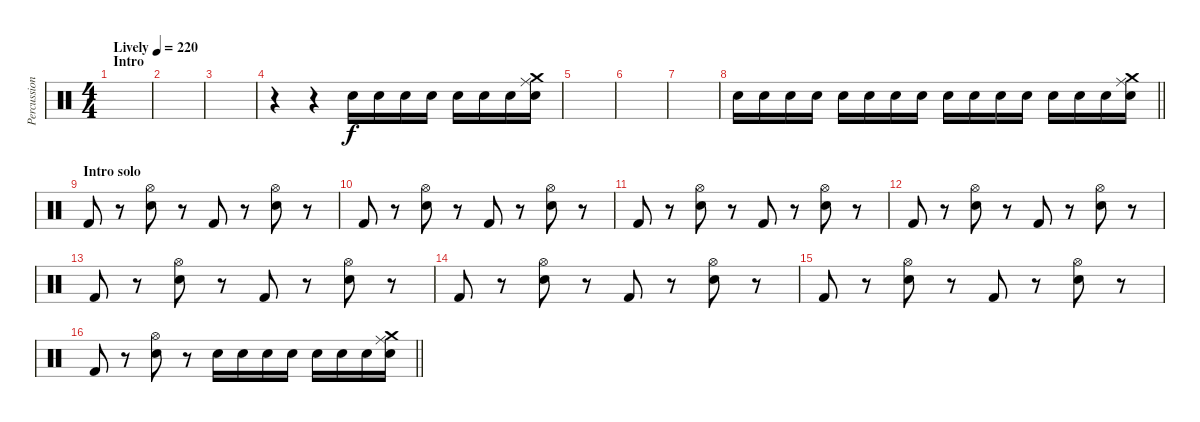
\track ("Percussion" "Percussion") {instrument percussion}
\staff {score}
\articulation defaults
\ts (4 4)
\section ("" "Intro")
\tempo (220 "Lively")
\clef neutral
\ks c
|
|
|
r.4 r.4 "Snare (hit) 2".16 "Snare (hit) 2".16 "Snare (hit) 2".16 "Snare (hit) 2".16 "Snare (hit) 2".16 "Snare (hit) 2".16 "Snare (hit) 2".16 ("Crash medium (hit)" "Ride (middle)" "Snare (hit) 2").16 |
|
|
|
\barLineRight lightlight "Snare (hit) 2".16 "Snare (hit) 2".16 "Snare (hit) 2".16 "Snare (hit) 2".16 "Snare (hit) 2".16 "Snare (hit) 2".16 "Snare (hit) 2".16 "Snare (hit) 2".16 "Snare (hit) 2".16 "Snare (hit) 2".16 "Snare (hit) 2".16 "Snare (hit) 2".16 "Snare (hit) 2".16 "Snare (hit) 2".16 "Snare (hit) 2".16
("Crash medium (hit)" "Ride (middle)" "Snare (hit) 2").16 |
\section ("" "Intro solo")
"Kick (hit) 2".8 r.8 ("Hi-Hat (open)" "Snare (hit) 2").8 r.8 "Kick (hit) 2".8 r.8 ("Hi-Hat (open)" "Snare (hit) 2").8 r.8 |
"Kick (hit) 2".8 r.8 ("Hi-Hat (open)" "Snare (hit) 2").8 r.8 "Kick (hit) 2".8 r.8 ("Hi-Hat (open)" "Snare (hit) 2").8 r.8 |
"Kick (hit) 2".8 r.8 ("Hi-Hat (open)" "Snare (hit) 2").8 r.8 "Kick (hit) 2".8 r.8 ("Hi-Hat (open)" "Snare (hit) 2").8 r.8 |
"Kick (hit) 2".8 r.8 ("Hi-Hat (open)" "Snare (hit) 2").8 r.8 "Kick (hit) 2".8 r.8 ("Hi-Hat (open)" "Snare (hit) 2").8 r.8 |
"Kick (hit) 2".8 r.8 ("Hi-Hat (open)" "Snare (hit) 2").8 r.8 "Kick (hit) 2".8 r.8 ("Hi-Hat (open)" "Snare (hit) 2").8 r.8 |
"Kick (hit) 2".8 r.8 ("Hi-Hat (open)" "Snare (hit) 2").8 r.8 "Kick (hit) 2".8 r.8 ("Hi-Hat (open)" "Snare (hit) 2").8 r.8 |
"Kick (hit) 2".8 r.8 ("Hi-Hat (open)" "Snare (hit) 2").8 r.8 "Kick (hit) 2".8 r.8 ("Hi-Hat (open)" "Snare (hit) 2").8 r.8 |
\barLineRight lightlight "Kick (hit) 2".8
r.8 ("Hi-Hat (open)" "Snare (hit) 2").8 r.8 "Snare (hit) 2".16 "Snare (hit) 2".16 "Snare (hit) 2".16 "Snare (hit) 2".16 "Snare (hit) 2".16 "Snare (hit) 2".16 "Snare (hit) 2".16 ("Crash medium (hit)" "Ride (middle)" "Snare (hit) 2").16
